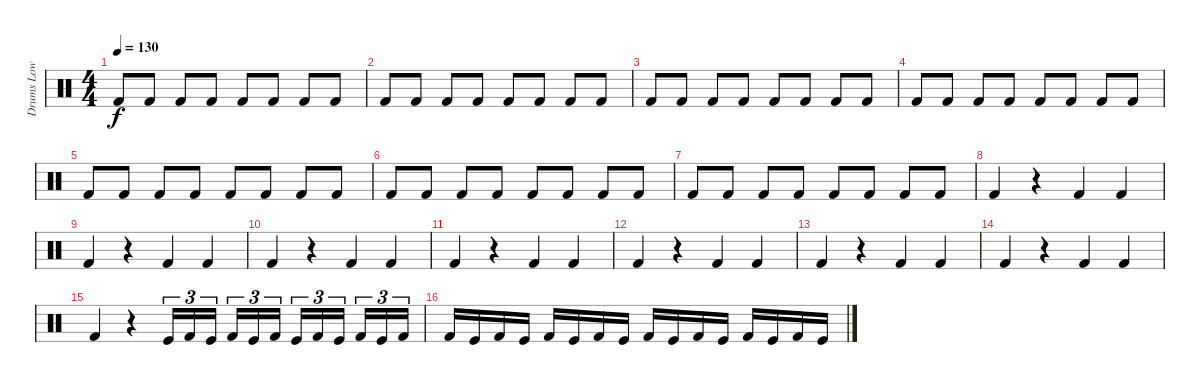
\track ("Drums Low" "Drums Low") {instrument percussion}
\staff {score}
\articulation defaults
\ts (4 4)
\tempo 130
\clef neutral
\ks c "Kick (hit) 2".8{dy f} "Kick (hit) 2".8 "Kick (hit) 2".8 "Kick (hit) 2".8 "Kick (hit) 2".8 "Kick (hit) 2".8 "Kick (hit) 2".8 "Kick (hit) 2".8
|
"Kick (hit) 2".8 "Kick (hit) 2".8 "Kick (hit) 2".8 "Kick (hit) 2".8 "Kick (hit) 2".8 "Kick (hit) 2".8 "Kick (hit) 2".8 "Kick (hit) 2".8 |
"Kick (hit) 2".8 "Kick (hit) 2".8 "Kick (hit) 2".8 "Kick (hit) 2".8 "Kick (hit) 2".8 "Kick (hit) 2".8 "Kick (hit) 2".8 "Kick (hit) 2".8 |
"Kick (hit) 2".8 "Kick (hit) 2".8 "Kick (hit) 2".8 "Kick (hit) 2".8 "Kick (hit) 2".8 "Kick (hit) 2".8 "Kick (hit) 2".8 "Kick (hit) 2".8 |
"Kick (hit) 2".8 "Kick (hit) 2".8 "Kick (hit) 2".8 "Kick (hit) 2".8 "Kick (hit) 2".8 "Kick (hit) 2".8 "Kick (hit) 2".8 "Kick (hit) 2".8 |
"Kick (hit) 2".8 "Kick (hit) 2".8 "Kick (hit) 2".8 "Kick (hit) 2".8 "Kick (hit) 2".8 "Kick (hit) 2".8 "Kick (hit) 2".8 "Kick (hit) 2".8 |
"Kick (hit) 2".8 "Kick (hit) 2".8 "Kick (hit) 2".8 "Kick (hit) 2".8 "Kick (hit) 2".8 "Kick (hit) 2".8 "Kick (hit) 2".8 "Kick (hit) 2".8 |
"Kick (hit) 2".4{volume 8} r.4 "Kick (hit) 2".4 "Kick (hit) 2".4 |
"Kick (hit) 2".4 r.4 "Kick (hit) 2".4 "Kick (hit) 2".4 |
"Kick (hit) 2".4 r.4 "Kick (hit) 2".4 "Kick (hit) 2".4 |
"Kick (hit) 2".4 r.4 "Kick (hit) 2".4 "Kick (hit) 2".4 |
"Kick (hit) 2".4 r.4 "Kick (hit) 2".4 "Kick (hit) 2".4 |
"Kick (hit) 2".4 r.4 "Kick (hit) 2".4 "Kick (hit) 2".4 |
"Kick (hit) 2".4 r.4 "Kick (hit) 2".4 "Kick (hit) 2".4 |
"Kick (hit) 2".4 r.4 "Kick (hit)".16{tu (3 2) volume 14} "Kick (hit) 2".16{tu (3 2)} "Kick (hit)".16{tu (3 2) beam splitsecondary} "Kick (hit) 2".16{tu (3 2)} "Kick (hit)".16{tu (3 2)} "Kick (hit) 2".16{tu (3 2)} "Kick (hit)".16{tu (3 2)} "Kick (hit) 2".16{tu (3 2)} "Kick (hit)".16{tu (3 2) beam splitsecondary} "Kick (hit) 2".16{tu (3 2)} "Kick (hit)".16{tu (3 2)} "Kick (hit) 2".16{tu (3 2)} |
"Kick (hit) 2".16 "Kick (hit)".16 "Kick (hit) 2".16 "Kick (hit)".16 "Kick (hit) 2".16 "Kick (hit)".16 "Kick (hit) 2".16 "Kick (hit)".16 "Kick (hit) 2".16 "Kick (hit)".16 "Kick (hit) 2".16 "Kick (hit)".16 "Kick (hit) 2".16 "Kick (hit)".16 "Kick (hit) 2".16 "Kick (hit)".16
